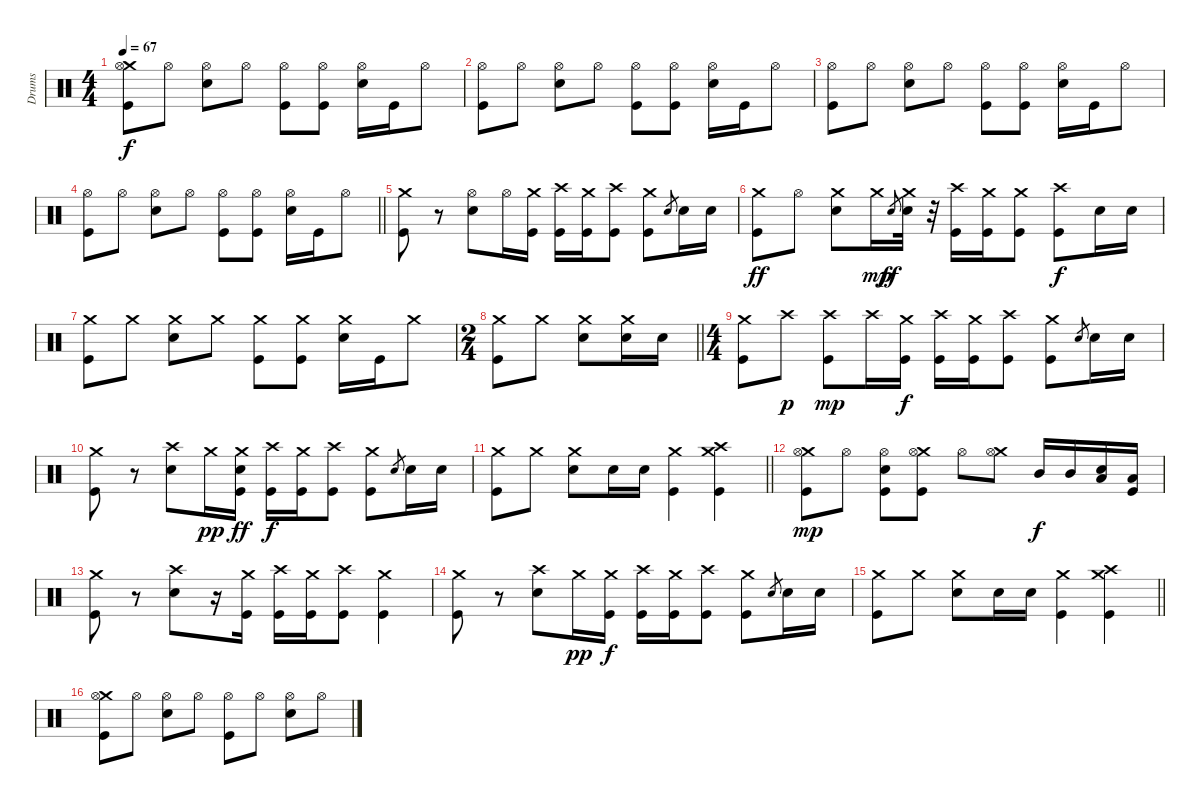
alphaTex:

\track ("Drums" "Drums") {instrument percussion}
\staff {score}
\articulation defaults
\ts (4 4)
\tempo 67
\clef neutral
\ks c
("Crash medium (hit)" "Hi-Hat (open)" "Kick (hit)").8{dy f} "Hi-Hat (open)".8 ("Hi-Hat (open)" "Snare (hit) 2").8 "Hi-Hat (open)".8 ("Hi-Hat (open)" "Kick (hit)").8 ("Hi-Hat (open)" "Kick (hit)").8 ("Hi-Hat (open)" "Snare (hit) 2").16 "Kick (hit)".16 "Hi-Hat (open)".8 |
("Hi-Hat (open)" "Kick (hit)").8 "Hi-Hat (open)".8 ("Hi-Hat (open)" "Snare (hit) 2").8 "Hi-Hat (open)".8 ("Hi-Hat (open)" "Kick (hit)").8 ("Hi-Hat (open)" "Kick (hit)").8 ("Hi-Hat (open)" "Snare (hit) 2").16 "Kick (hit)".16 "Hi-Hat (open)".8 |
("Hi-Hat (open)" "Kick (hit)").8 "Hi-Hat (open)".8 ("Hi-Hat (open)" "Snare (hit) 2").8 "Hi-Hat (open)".8 ("Hi-Hat (open)" "Kick (hit)").8 ("Hi-Hat (open)" "Kick (hit)").8 ("Hi-Hat (open)" "Snare (hit) 2").16 "Kick (hit)".16 "Hi-Hat (open)".8 |
\barLineRight lightlight
("Hi-Hat (open)" "Kick (hit)").8 "Hi-Hat (open)".8 ("Hi-Hat (open)" "Snare (hit) 2").8 "Hi-Hat (open)".8 ("Hi-Hat (open)" "Kick (hit)").8 ("Hi-Hat (open)" "Kick (hit)").8 ("Hi-Hat (open)" "Snare (hit) 2").16 "Kick (hit)".16 "Hi-Hat (open)".8 |
("Crash medium (hit)" "Kick (hit)").8 r.8 ("Hi-Hat (open)" "Snare (hit) 2").8 "Hi-Hat (open)".16 ("Crash medium (hit)" "Kick (hit)").16 ("Crash high (hit)" "Kick (hit)").16 ("Crash medium (hit)" "Kick (hit)").16 ("Crash high (hit)" "Kick (hit)").8 ("Crash medium (hit)" "Kick (hit)").8 "Snare (hit) 2".8{gr} "Snare (hit) 2".16 "Snare (hit) 2".16 |
("Crash medium (hit)" "Kick (hit)").8{dy ff} "Hi-Hat (open)".8 ("Crash medium (hit)" "Snare (hit) 2").8 "Crash medium (hit)".16{dy mp} "Snare (hit) 2".8{gr dy ff} ("Crash medium (hit)" "Snare (hit) 2").32 r.32 ("Crash high (hit)" "Kick (hit)").16 ("Crash medium (hit)" "Kick (hit)").16 ("Crash medium (hit)" "Kick (hit)").8 ("Crash high (hit)" "Kick (hit)").8{dy f} "Snare (hit) 2".16 "Snare (hit) 2".16 |
("Crash medium (hit)" "Kick (hit)").8 "Crash medium (hit)".8 ("Crash medium (hit)" "Snare (hit) 2").8 "Crash medium (hit)".8 ("Crash medium (hit)" "Kick (hit)").8 ("Crash medium (hit)" "Kick (hit)").8 ("Crash medium (hit)" "Snare (hit) 2").16 "Kick (hit)".16 "Crash medium (hit)".8 |
\ts (2 4)
\barLineRight lightlight
("Crash medium (hit)" "Kick (hit)").8 "Crash medium (hit)".8 ("Crash medium (hit)" "Snare (hit) 2").8 ("Crash medium (hit)" "Snare (hit) 2").16 "Snare (hit) 2".16 |
\ts (4 4)
("Crash medium (hit)" "Kick (hit)").8 "Crash high (hit)".8{dy p} ("Crash high (hit)" "Kick (hit)").8{dy mp} "Crash high (hit)".16 ("Crash medium (hit)" "Kick (hit)").16{dy f} ("Crash high (hit)" "Kick (hit)").16 ("Crash medium (hit)" "Kick (hit)").16 ("Crash high (hit)" "Kick (hit)").8 ("Crash medium (hit)" "Kick (hit)").8 "Snare (hit) 2".8{gr} "Snare (hit) 2".16 "Snare (hit) 2".16 |
("Crash medium (hit)" "Kick (hit)").8 r.8 ("Crash high (hit)" "Snare (hit) 2").8 "Crash medium (hit)".16{dy pp} ("Crash medium (hit)" "Snare (hit) 2" "Kick (hit)").16{dy ff} ("Crash high (hit)" "Kick (hit)").16{dy f} ("Crash medium (hit)" "Kick (hit)").16 ("Crash high (hit)" "Kick (hit)").8 ("Crash medium (hit)" "Kick (hit)").8 "Snare (hit) 2".8{gr} "Snare (hit) 2".16 "Snare (hit) 2".16 |
\barLineRight lightlight
("Crash medium (hit)" "Kick (hit)").8 "Crash medium (hit)".8 ("Crash medium (hit)" "Snare (hit) 2").8 "Snare (hit) 2".16 "Snare (hit) 2".16 ("Crash medium (hit)" "Kick (hit)").4 ("Crash medium (hit)" "Crash high (hit)" "Kick (hit)").4 |
("Crash medium (hit)" "Hi-Hat (open)" "Kick (hit)").8{dy mp} "Hi-Hat (open)".8 ("Hi-Hat (open)" "Snare (hit) 2" "Kick (hit)").8 ("Crash medium (hit)" "Hi-Hat (open)" "Kick (hit)").8 "Hi-Hat (open)".8 ("Crash medium (hit)" "Hi-Hat (open)").8 "Mid Tom (hit)".16{dy f} "Mid Tom (hit)".16 ("Snare (hit) 2" "Low Tom (hit)").16 ("Kick (hit)" "Low Tom (hit)").16 |
("Crash medium (hit)" "Kick (hit)").8 r.8 ("Crash high (hit)" "Snare (hit) 2").8 r.16 ("Crash medium (hit)" "Kick (hit)").16 ("Crash high (hit)" "Kick (hit)").16 ("Crash medium (hit)" "Kick (hit)").16 ("Crash high (hit)" "Kick (hit)").8 ("Crash medium (hit)" "Kick (hit)").4 |
("Crash medium (hit)" "Kick (hit)").8 r.8 ("Crash high (hit)" "Snare (hit) 2").8 "Crash medium (hit)".16{dy pp} ("Crash medium (hit)" "Kick (hit)").16{dy f} ("Crash high (hit)" "Kick (hit)").16 ("Crash medium (hit)" "Kick (hit)").16 ("Crash high (hit)" "Kick (hit)").8 ("Crash medium (hit)" "Kick (hit)").8 "Snare (hit) 2".8{gr} "Snare (hit) 2".16 "Snare (hit) 2".16 |
\barLineRight lightlight
("Crash medium (hit)" "Kick (hit)").8 "Crash medium (hit)".8 ("Crash medium (hit)" "Snare (hit) 2").8 "Snare (hit) 2".16 "Snare (hit) 2".16 ("Crash medium (hit)" "Kick (hit)").4 ("Crash medium (hit)" "Crash high (hit)" "Kick (hit)").4 |
("Crash medium (hit)" "Hi-Hat (open)" "Kick (hit)").8 "Hi-Hat (open)".8 ("Hi-Hat (open)" "Snare (hit) 2").8 "Hi-Hat (open)".8 ("Hi-Hat (open)" "Kick (hit)").8 "Hi-Hat (open)".8 ("Hi-Hat (open)" "Snare (hit) 2").8 "Hi-Hat (open)".8
